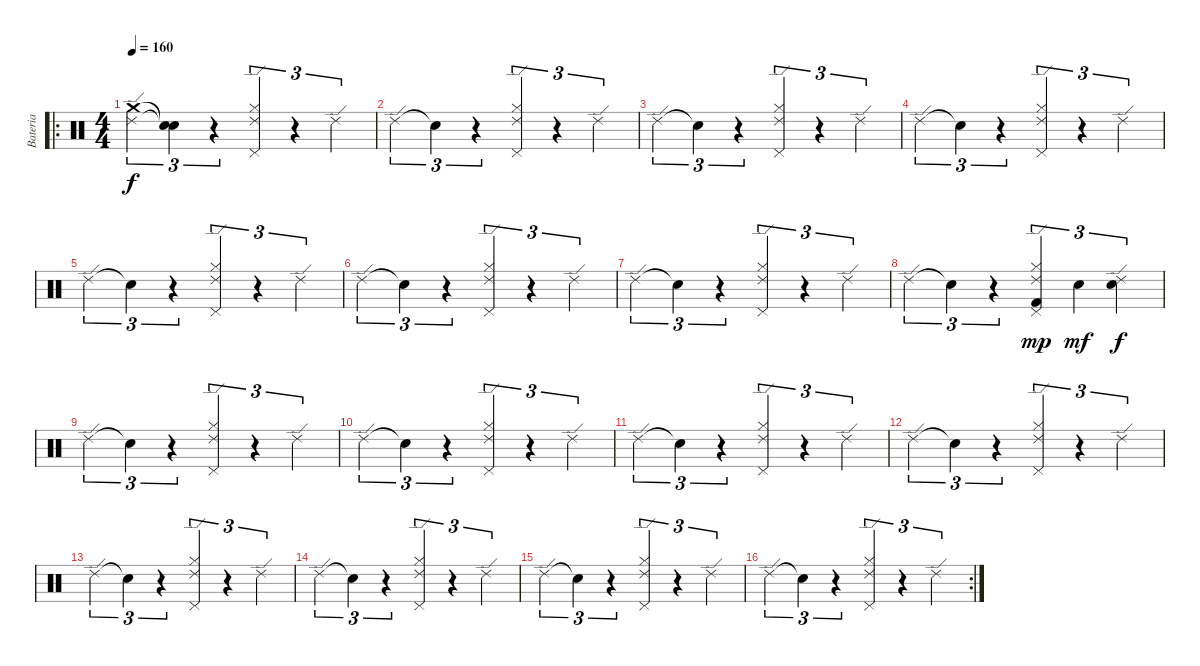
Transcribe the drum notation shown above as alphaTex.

\track ("Bateria" "Bateria") {instrument percussion}
\staff {score}
\articulation defaults
\ro
\ts (4 4)
\tempo 160
\clef neutral
\ks c
("Ride (edge) 2" "Crash medium (hit)").4{tu (3 2) dy f} ("Snare (hit)"{t} "Snare (hit)"{t}).4{tu (3 2)} r.4{tu (3 2)} ("Ride (edge) 2" "Hi-Hat (closed)" "Pedal Hi-Hat (hit)").4{tu (3 2)} r.4{tu (3 2)} "Ride (edge) 2".4{tu (3 2)} |
"Ride (edge) 2".4{tu (3 2)} "Snare (hit)"{t}.4{tu (3 2)} r.4{tu (3 2)} ("Ride (edge) 2" "Hi-Hat (closed)" "Pedal Hi-Hat (hit)").4{tu (3 2)} r.4{tu (3 2)} "Ride (edge) 2".4{tu (3 2)} |
"Ride (edge) 2".4{tu (3 2)} "Snare (hit)"{t}.4{tu (3 2)} r.4{tu (3 2)} ("Ride (edge) 2" "Hi-Hat (closed)" "Pedal Hi-Hat (hit)").4{tu (3 2)} r.4{tu (3 2)} "Ride (edge) 2".4{tu (3 2)} |
"Ride (edge) 2".4{tu (3 2)} "Snare (hit)"{t}.4{tu (3 2)} r.4{tu (3 2)} ("Ride (edge) 2" "Hi-Hat (closed)" "Pedal Hi-Hat (hit)").4{tu (3 2)} r.4{tu (3 2)} "Ride (edge) 2".4{tu (3 2)} |
"Ride (edge) 2".4{tu (3 2)} "Snare (hit)"{t}.4{tu (3 2)} r.4{tu (3 2)} ("Ride (edge) 2" "Hi-Hat (closed)" "Pedal Hi-Hat (hit)").4{tu (3 2)} r.4{tu (3 2)} "Ride (edge) 2".4{tu (3 2)} |
"Ride (edge) 2".4{tu (3 2)} "Snare (hit)"{t}.4{tu (3 2)} r.4{tu (3 2)} ("Ride (edge) 2" "Hi-Hat (closed)" "Pedal Hi-Hat (hit)").4{tu (3 2)} r.4{tu (3 2)} "Ride (edge) 2".4{tu (3 2)} |
"Ride (edge) 2".4{tu (3 2)} "Snare (hit)"{t}.4{tu (3 2)} r.4{tu (3 2)} ("Ride (edge) 2" "Hi-Hat (closed)" "Pedal Hi-Hat (hit)").4{tu (3 2)} r.4{tu (3 2)} "Ride (edge) 2".4{tu (3 2)} |
"Ride (edge) 2".4{tu (3 2)} "Snare (hit)"{t}.4{tu (3 2)} r.4{tu (3 2)} ("Ride (edge) 2" "Hi-Hat (closed)" "Pedal Hi-Hat (hit)" "Kick (hit) 2").4{tu (3 2) dy mp} "Snare (hit) 2".4{tu (3 2) dy mf} ("Ride (edge) 2" "Snare (hit) 2").4{tu (3 2) dy f} |
"Ride (edge) 2".4{tu (3 2)} "Snare (hit)"{t}.4{tu (3 2)} r.4{tu (3 2)} ("Ride (edge) 2" "Hi-Hat (closed)" "Pedal Hi-Hat (hit)").4{tu (3 2)} r.4{tu (3 2)} "Ride (edge) 2".4{tu (3 2)} |
"Ride (edge) 2".4{tu (3 2)} "Snare (hit)"{t}.4{tu (3 2)} r.4{tu (3 2)} ("Ride (edge) 2" "Hi-Hat (closed)" "Pedal Hi-Hat (hit)").4{tu (3 2)} r.4{tu (3 2)} "Ride (edge) 2".4{tu (3 2)} |
"Ride (edge) 2".4{tu (3 2)} "Snare (hit)"{t}.4{tu (3 2)} r.4{tu (3 2)} ("Ride (edge) 2" "Hi-Hat (closed)" "Pedal Hi-Hat (hit)").4{tu (3 2)} r.4{tu (3 2)} "Ride (edge) 2".4{tu (3 2)} |
"Ride (edge) 2".4{tu (3 2)} "Snare (hit)"{t}.4{tu (3 2)} r.4{tu (3 2)} ("Ride (edge) 2" "Hi-Hat (closed)" "Pedal Hi-Hat (hit)").4{tu (3 2)} r.4{tu (3 2)} "Ride (edge) 2".4{tu (3 2)} |
"Ride (edge) 2".4{tu (3 2)} "Snare (hit)"{t}.4{tu (3 2)} r.4{tu (3 2)} ("Ride (edge) 2" "Hi-Hat (closed)" "Pedal Hi-Hat (hit)").4{tu (3 2)} r.4{tu (3 2)} "Ride (edge) 2".4{tu (3 2)} |
"Ride (edge) 2".4{tu (3 2)} "Snare (hit)"{t}.4{tu (3 2)} r.4{tu (3 2)} ("Ride (edge) 2" "Hi-Hat (closed)" "Pedal Hi-Hat (hit)").4{tu (3 2)} r.4{tu (3 2)} "Ride (edge) 2".4{tu (3 2)} |
"Ride (edge) 2".4{tu (3 2)} "Snare (hit)"{t}.4{tu (3 2)} r.4{tu (3 2)} ("Ride (edge) 2" "Hi-Hat (closed)" "Pedal Hi-Hat (hit)").4{tu (3 2)} r.4{tu (3 2)} "Ride (edge) 2".4{tu (3 2)} |
\rc 2 "Ride (edge) 2".4{tu (3 2)} "Snare (hit)"{t}.4{tu (3 2)}
r.4{tu (3 2)} ("Ride (edge) 2" "Hi-Hat (closed)" "Pedal Hi-Hat (hit)").4{tu (3 2)} r.4{tu (3 2)} "Ride (edge) 2".4{tu (3 2)}
